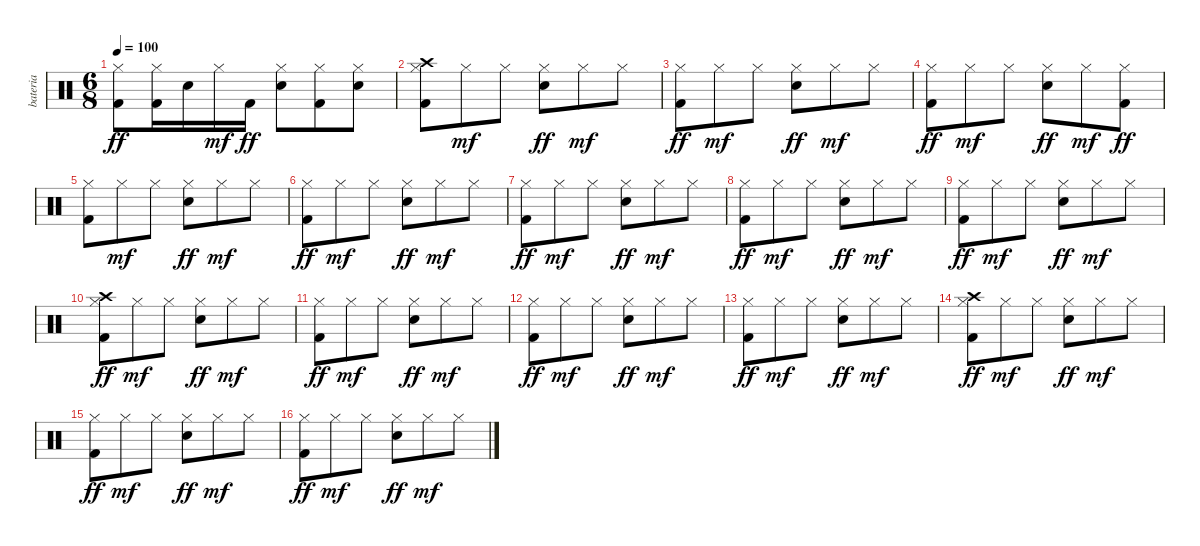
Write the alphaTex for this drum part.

\track ("bateria" "bateria") {instrument percussion}
\staff {score}
\articulation defaults
\ts (6 8)
\tempo 100
\clef neutral
\ks c
("Hi-Hat (closed)" "Kick (hit) 2").8{dy ff} ("Hi-Hat (closed)" "Kick (hit) 2").16 "Snare (hit) 2".16 "Hi-Hat (closed)".16{dy mf} "Kick (hit) 2".16{dy ff} ("Hi-Hat (closed)" "Snare (hit) 2").8 ("Hi-Hat (closed)" "Kick (hit) 2").8 ("Hi-Hat (closed)" "Snare (hit) 2").8 |
("Crash high (hit)" "Hi-Hat (closed)" "Kick (hit) 2").8 "Hi-Hat (closed)".8{dy mf} "Hi-Hat (closed)".8 ("Hi-Hat (closed)" "Snare (hit) 2").8{dy ff} "Hi-Hat (closed)".8{dy mf} "Hi-Hat (closed)".8 |
("Hi-Hat (closed)" "Kick (hit) 2").8{dy ff} "Hi-Hat (closed)".8{dy mf} "Hi-Hat (closed)".8 ("Hi-Hat (closed)" "Snare (hit) 2").8{dy ff} "Hi-Hat (closed)".8{dy mf} "Hi-Hat (closed)".8 |
("Hi-Hat (closed)" "Kick (hit) 2").8{dy ff} "Hi-Hat (closed)".8{dy mf} "Hi-Hat (closed)".8 ("Hi-Hat (closed)" "Snare (hit) 2").8{dy ff} "Hi-Hat (closed)".8{dy mf} ("Hi-Hat (closed)" "Kick (hit) 2").8{dy ff} |
("Hi-Hat (closed)" "Kick (hit) 2").8 "Hi-Hat (closed)".8{dy mf} "Hi-Hat (closed)".8 ("Hi-Hat (closed)" "Snare (hit) 2").8{dy ff} "Hi-Hat (closed)".8{dy mf} "Hi-Hat (closed)".8 |
("Hi-Hat (closed)" "Kick (hit) 2").8{dy ff} "Hi-Hat (closed)".8{dy mf} "Hi-Hat (closed)".8 ("Hi-Hat (closed)" "Snare (hit) 2").8{dy ff} "Hi-Hat (closed)".8{dy mf} "Hi-Hat (closed)".8 |
("Hi-Hat (closed)" "Kick (hit) 2").8{dy ff} "Hi-Hat (closed)".8{dy mf} "Hi-Hat (closed)".8 ("Hi-Hat (closed)" "Snare (hit) 2").8{dy ff} "Hi-Hat (closed)".8{dy mf} "Hi-Hat (closed)".8 |
("Hi-Hat (closed)" "Kick (hit) 2").8{dy ff} "Hi-Hat (closed)".8{dy mf} "Hi-Hat (closed)".8 ("Hi-Hat (closed)" "Snare (hit) 2").8{dy ff} "Hi-Hat (closed)".8{dy mf} "Hi-Hat (closed)".8 |
("Hi-Hat (closed)" "Kick (hit) 2").8{dy ff} "Hi-Hat (closed)".8{dy mf} "Hi-Hat (closed)".8 ("Hi-Hat (closed)" "Snare (hit) 2").8{dy ff} "Hi-Hat (closed)".8{dy mf} "Hi-Hat (closed)".8 |
("Crash high (hit)" "Hi-Hat (closed)" "Kick (hit) 2").8{dy ff} "Hi-Hat (closed)".8{dy mf} "Hi-Hat (closed)".8 ("Hi-Hat (closed)" "Snare (hit) 2").8{dy ff} "Hi-Hat (closed)".8{dy mf} "Hi-Hat (closed)".8 |
("Hi-Hat (closed)" "Kick (hit) 2").8{dy ff} "Hi-Hat (closed)".8{dy mf} "Hi-Hat (closed)".8 ("Hi-Hat (closed)" "Snare (hit) 2").8{dy ff} "Hi-Hat (closed)".8{dy mf} "Hi-Hat (closed)".8 |
("Hi-Hat (closed)" "Kick (hit) 2").8{dy ff} "Hi-Hat (closed)".8{dy mf} "Hi-Hat (closed)".8 ("Hi-Hat (closed)" "Snare (hit) 2").8{dy ff} "Hi-Hat (closed)".8{dy mf} "Hi-Hat (closed)".8 |
("Hi-Hat (closed)" "Kick (hit) 2").8{dy ff} "Hi-Hat (closed)".8{dy mf} "Hi-Hat (closed)".8 ("Hi-Hat (closed)" "Snare (hit) 2").8{dy ff} "Hi-Hat (closed)".8{dy mf} "Hi-Hat (closed)".8 |
("Crash high (hit)" "Hi-Hat (closed)" "Kick (hit) 2").8{dy ff} "Hi-Hat (closed)".8{dy mf} "Hi-Hat (closed)".8 ("Hi-Hat (closed)" "Snare (hit) 2").8{dy ff} "Hi-Hat (closed)".8{dy mf} "Hi-Hat (closed)".8 |
("Hi-Hat (closed)" "Kick (hit) 2").8{dy ff} "Hi-Hat (closed)".8{dy mf} "Hi-Hat (closed)".8 ("Hi-Hat (closed)" "Snare (hit) 2").8{dy ff} "Hi-Hat (closed)".8{dy mf} "Hi-Hat (closed)".8 |
("Hi-Hat (closed)" "Kick (hit) 2").8{dy ff} "Hi-Hat (closed)".8{dy mf} "Hi-Hat (closed)".8 ("Hi-Hat (closed)" "Snare (hit) 2").8{dy ff} "Hi-Hat (closed)".8{dy mf} "Hi-Hat (closed)".8
